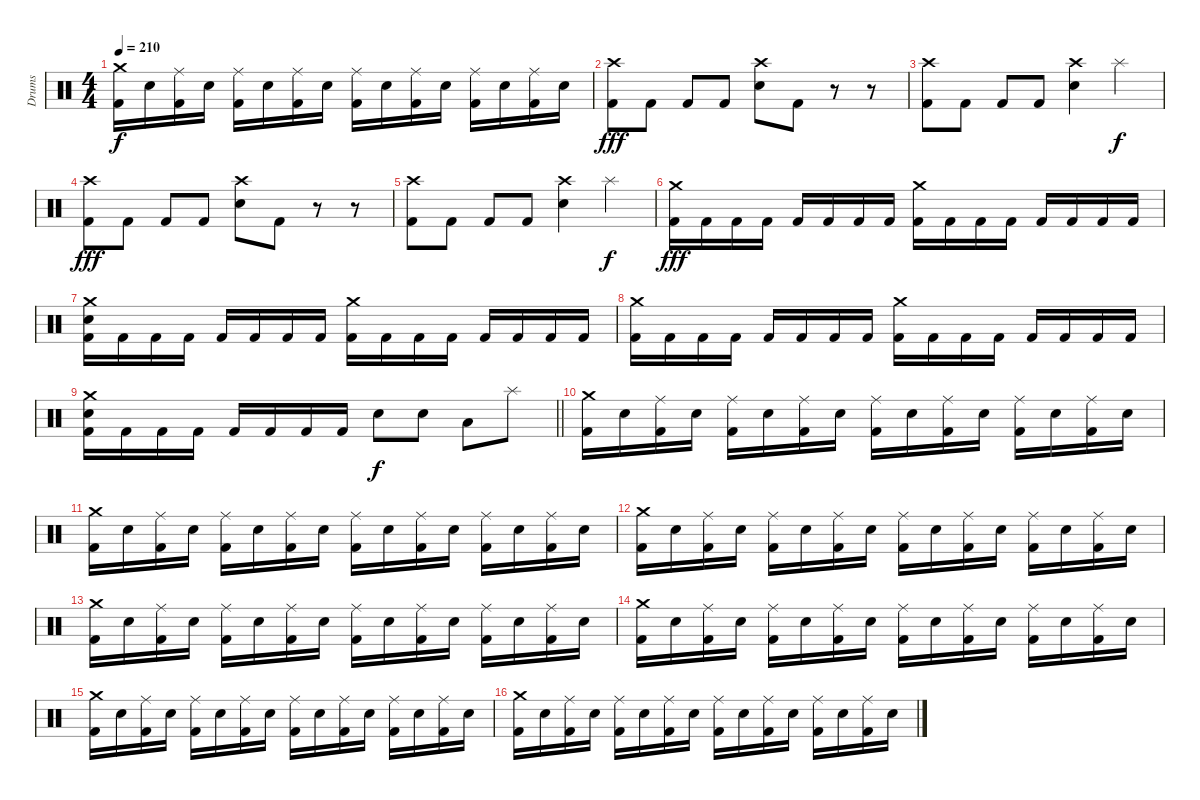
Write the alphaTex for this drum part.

\track ("Drums" "Drums") {instrument percussion}
\staff {score}
\articulation defaults
\ts (4 4)
\tempo 210
\clef neutral
\ks c
("Crash medium (hit)" "Kick (hit) 2").16{dy f} "Electric Snare (hit)".16 ("Ride (middle)" "Kick (hit) 2").16 "Electric Snare (hit)".16 ("Ride (middle)" "Kick (hit) 2").16 "Electric Snare (hit)".16 ("Ride (middle)" "Kick (hit) 2").16 "Electric Snare (hit)".16 ("Ride (middle)" "Kick (hit) 2").16 "Electric Snare (hit)".16 ("Ride (middle)" "Kick (hit) 2").16 "Electric Snare (hit)".16 ("Ride (middle)" "Kick (hit) 2").16 "Electric Snare (hit)".16 ("Ride (middle)" "Kick (hit) 2").16 "Electric Snare (hit)".16 |
("Crash high (hit)" "Kick (hit) 2").8{dy fff} "Kick (hit) 2".8 "Kick (hit) 2".8 "Kick (hit) 2".8 ("Crash high (hit)" "Electric Snare (hit)").8 "Kick (hit) 2".8 r.8 r.8 |
("Crash high (hit)" "Kick (hit) 2").8 "Kick (hit) 2".8 "Kick (hit) 2".8 "Kick (hit) 2".8 ("Crash high (hit)" "Electric Snare (hit)").4 "Splash (hit)".4{dy f} |
("Crash high (hit)" "Kick (hit) 2").8{dy fff} "Kick (hit) 2".8 "Kick (hit) 2".8 "Kick (hit) 2".8 ("Crash high (hit)" "Electric Snare (hit)").8 "Kick (hit) 2".8 r.8 r.8 |
("Crash high (hit)" "Kick (hit) 2").8 "Kick (hit) 2".8 "Kick (hit) 2".8 "Kick (hit) 2".8 ("Crash high (hit)" "Electric Snare (hit)").4 "Splash (hit)".4{dy f} |
("Crash medium (hit)" "Kick (hit) 2").16{dy fff} "Kick (hit) 2".16 "Kick (hit) 2".16 "Kick (hit) 2".16 "Kick (hit) 2".16 "Kick (hit) 2".16 "Kick (hit) 2".16 "Kick (hit) 2".16 ("Crash medium (hit)" "Kick (hit) 2").16 "Kick (hit) 2".16 "Kick (hit) 2".16 "Kick (hit) 2".16 "Kick (hit) 2".16 "Kick (hit) 2".16 "Kick (hit) 2".16 "Kick (hit) 2".16 |
("Crash medium (hit)" "Electric Snare (hit)" "Kick (hit) 2").16 "Kick (hit) 2".16 "Kick (hit) 2".16 "Kick (hit) 2".16 "Kick (hit) 2".16 "Kick (hit) 2".16 "Kick (hit) 2".16 "Kick (hit) 2".16 ("Crash medium (hit)" "Kick (hit) 2").16 "Kick (hit) 2".16 "Kick (hit) 2".16 "Kick (hit) 2".16 "Kick (hit) 2".16 "Kick (hit) 2".16 "Kick (hit) 2".16 "Kick (hit) 2".16 |
("Crash medium (hit)" "Kick (hit) 2").16 "Kick (hit) 2".16 "Kick (hit) 2".16 "Kick (hit) 2".16 "Kick (hit) 2".16 "Kick (hit) 2".16 "Kick (hit) 2".16 "Kick (hit) 2".16 ("Crash medium (hit)" "Kick (hit) 2").16 "Kick (hit) 2".16 "Kick (hit) 2".16 "Kick (hit) 2".16 "Kick (hit) 2".16 "Kick (hit) 2".16 "Kick (hit) 2".16 "Kick (hit) 2".16 |
\barLineRight lightlight
("Crash medium (hit)" "Electric Snare (hit)" "Kick (hit) 2").16 "Kick (hit) 2".16 "Kick (hit) 2".16 "Kick (hit) 2".16 "Kick (hit) 2".16 "Kick (hit) 2".16 "Kick (hit) 2".16 "Kick (hit) 2".16 "Electric Snare (hit)".8{dy f} "Electric Snare (hit)".8 "Low Tom (hit)".8 "Splash (hit)".8 |
("Crash medium (hit)" "Kick (hit) 2").16 "Electric Snare (hit)".16 ("Ride (middle)" "Kick (hit) 2").16 "Electric Snare (hit)".16 ("Ride (middle)" "Kick (hit) 2").16 "Electric Snare (hit)".16 ("Ride (middle)" "Kick (hit) 2").16 "Electric Snare (hit)".16 ("Ride (middle)" "Kick (hit) 2").16 "Electric Snare (hit)".16 ("Ride (middle)" "Kick (hit) 2").16 "Electric Snare (hit)".16 ("Ride (middle)" "Kick (hit) 2").16 "Electric Snare (hit)".16 ("Ride (middle)" "Kick (hit) 2").16 "Electric Snare (hit)".16 |
("Crash medium (hit)" "Kick (hit) 2").16 "Electric Snare (hit)".16 ("Ride (middle)" "Kick (hit) 2").16 "Electric Snare (hit)".16 ("Ride (middle)" "Kick (hit) 2").16 "Electric Snare (hit)".16 ("Ride (middle)" "Kick (hit) 2").16 "Electric Snare (hit)".16 ("Ride (middle)" "Kick (hit) 2").16 "Electric Snare (hit)".16 ("Ride (middle)" "Kick (hit) 2").16 "Electric Snare (hit)".16 ("Ride (middle)" "Kick (hit) 2").16 "Electric Snare (hit)".16 ("Ride (middle)" "Kick (hit) 2").16 "Electric Snare (hit)".16 |
("Crash medium (hit)" "Kick (hit) 2").16 "Electric Snare (hit)".16 ("Ride (middle)" "Kick (hit) 2").16 "Electric Snare (hit)".16 ("Ride (middle)" "Kick (hit) 2").16 "Electric Snare (hit)".16 ("Ride (middle)" "Kick (hit) 2").16 "Electric Snare (hit)".16 ("Ride (middle)" "Kick (hit) 2").16 "Electric Snare (hit)".16 ("Ride (middle)" "Kick (hit) 2").16 "Electric Snare (hit)".16 ("Ride (middle)" "Kick (hit) 2").16 "Electric Snare (hit)".16 ("Ride (middle)" "Kick (hit) 2").16 "Electric Snare (hit)".16 |
("Crash medium (hit)" "Kick (hit) 2").16 "Electric Snare (hit)".16 ("Ride (middle)" "Kick (hit) 2").16 "Electric Snare (hit)".16 ("Ride (middle)" "Kick (hit) 2").16 "Electric Snare (hit)".16 ("Ride (middle)" "Kick (hit) 2").16 "Electric Snare (hit)".16 ("Ride (middle)" "Kick (hit) 2").16 "Electric Snare (hit)".16 ("Ride (middle)" "Kick (hit) 2").16 "Electric Snare (hit)".16 ("Ride (middle)" "Kick (hit) 2").16 "Electric Snare (hit)".16 ("Ride (middle)" "Kick (hit) 2").16 "Electric Snare (hit)".16 |
("Crash medium (hit)" "Kick (hit) 2").16 "Electric Snare (hit)".16 ("Ride (middle)" "Kick (hit) 2").16 "Electric Snare (hit)".16 ("Ride (middle)" "Kick (hit) 2").16 "Electric Snare (hit)".16 ("Ride (middle)" "Kick (hit) 2").16 "Electric Snare (hit)".16 ("Ride (middle)" "Kick (hit) 2").16 "Electric Snare (hit)".16 ("Ride (middle)" "Kick (hit) 2").16 "Electric Snare (hit)".16 ("Ride (middle)" "Kick (hit) 2").16 "Electric Snare (hit)".16 ("Ride (middle)" "Kick (hit) 2").16 "Electric Snare (hit)".16 |
("Crash medium (hit)" "Kick (hit) 2").16 "Electric Snare (hit)".16 ("Ride (middle)" "Kick (hit) 2").16 "Electric Snare (hit)".16 ("Ride (middle)" "Kick (hit) 2").16 "Electric Snare (hit)".16 ("Ride (middle)" "Kick (hit) 2").16 "Electric Snare (hit)".16 ("Ride (middle)" "Kick (hit) 2").16 "Electric Snare (hit)".16 ("Ride (middle)" "Kick (hit) 2").16 "Electric Snare (hit)".16 ("Ride (middle)" "Kick (hit) 2").16 "Electric Snare (hit)".16 ("Ride (middle)" "Kick (hit) 2").16 "Electric Snare (hit)".16 |
("Crash medium (hit)" "Kick (hit) 2").16 "Electric Snare (hit)".16 ("Ride (middle)" "Kick (hit) 2").16 "Electric Snare (hit)".16 ("Ride (middle)" "Kick (hit) 2").16 "Electric Snare (hit)".16 ("Ride (middle)" "Kick (hit) 2").16 "Electric Snare (hit)".16 ("Ride (middle)" "Kick (hit) 2").16 "Electric Snare (hit)".16 ("Ride (middle)" "Kick (hit) 2").16 "Electric Snare (hit)".16 ("Ride (middle)" "Kick (hit) 2").16 "Electric Snare (hit)".16 ("Ride (middle)" "Kick (hit) 2").16 "Electric Snare (hit)".16
